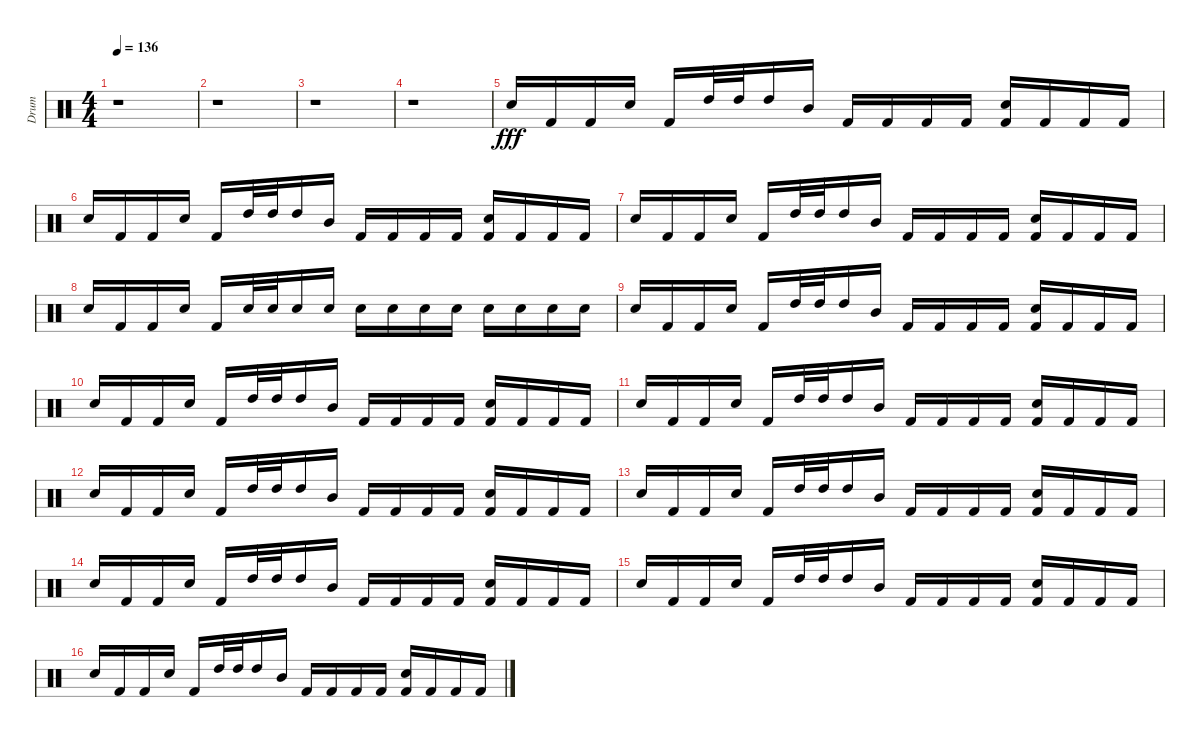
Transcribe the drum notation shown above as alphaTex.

\track ("Drum" "Drum") {instrument percussion}
\staff {score}
\articulation defaults
\ts (4 4)
\tempo 136
\clef neutral
\ks c
r.1{dy fff} |
r.1 |
r.1 |
r.1 |
"Electric Snare (hit)".16 "Kick (hit) 2".16 "Kick (hit) 2".16 "Electric Snare (hit)".16 "Kick (hit) 2".16 "High Tom (hit)".32 "High Tom (hit)".32 "High Tom (hit)".16 "Mid Tom (hit)".16 "Kick (hit) 2".16 "Kick (hit) 2".16 "Kick (hit) 2".16 "Kick (hit) 2".16 ("Electric Snare (hit)" "Kick (hit) 2").16 "Kick (hit) 2".16 "Kick (hit) 2".16 "Kick (hit) 2".16 |
"Electric Snare (hit)".16 "Kick (hit) 2".16 "Kick (hit) 2".16 "Electric Snare (hit)".16 "Kick (hit) 2".16 "High Tom (hit)".32 "High Tom (hit)".32 "High Tom (hit)".16 "Mid Tom (hit)".16 "Kick (hit) 2".16 "Kick (hit) 2".16 "Kick (hit) 2".16 "Kick (hit) 2".16 ("Electric Snare (hit)" "Kick (hit) 2").16 "Kick (hit) 2".16 "Kick (hit) 2".16 "Kick (hit) 2".16 |
"Electric Snare (hit)".16 "Kick (hit) 2".16 "Kick (hit) 2".16 "Electric Snare (hit)".16 "Kick (hit) 2".16 "High Tom (hit)".32 "High Tom (hit)".32 "High Tom (hit)".16 "Mid Tom (hit)".16 "Kick (hit) 2".16 "Kick (hit) 2".16 "Kick (hit) 2".16 "Kick (hit) 2".16 ("Electric Snare (hit)" "Kick (hit) 2").16 "Kick (hit) 2".16 "Kick (hit) 2".16 "Kick (hit) 2".16 |
"Electric Snare (hit)".16 "Kick (hit) 2".16 "Kick (hit) 2".16 "Electric Snare (hit)".16 "Kick (hit) 2".16 "Electric Snare (hit)".32 "Electric Snare (hit)".32 "Electric Snare (hit)".16 "Electric Snare (hit)".16 "Electric Snare (hit)".16 "Electric Snare (hit)".16 "Electric Snare (hit)".16 "Electric Snare (hit)".16 "Electric Snare (hit)".16 "Electric Snare (hit)".16 "Electric Snare (hit)".16 "Electric Snare (hit)".16 |
"Electric Snare (hit)".16 "Kick (hit) 2".16 "Kick (hit) 2".16 "Electric Snare (hit)".16 "Kick (hit) 2".16 "High Tom (hit)".32 "High Tom (hit)".32 "High Tom (hit)".16 "Mid Tom (hit)".16 "Kick (hit) 2".16 "Kick (hit) 2".16 "Kick (hit) 2".16 "Kick (hit) 2".16 ("Electric Snare (hit)" "Kick (hit) 2").16 "Kick (hit) 2".16 "Kick (hit) 2".16 "Kick (hit) 2".16 |
"Electric Snare (hit)".16 "Kick (hit) 2".16 "Kick (hit) 2".16 "Electric Snare (hit)".16 "Kick (hit) 2".16 "High Tom (hit)".32 "High Tom (hit)".32 "High Tom (hit)".16 "Mid Tom (hit)".16 "Kick (hit) 2".16 "Kick (hit) 2".16 "Kick (hit) 2".16 "Kick (hit) 2".16 ("Electric Snare (hit)" "Kick (hit) 2").16 "Kick (hit) 2".16 "Kick (hit) 2".16 "Kick (hit) 2".16 |
"Electric Snare (hit)".16 "Kick (hit) 2".16 "Kick (hit) 2".16 "Electric Snare (hit)".16 "Kick (hit) 2".16 "High Tom (hit)".32 "High Tom (hit)".32 "High Tom (hit)".16 "Mid Tom (hit)".16 "Kick (hit) 2".16 "Kick (hit) 2".16 "Kick (hit) 2".16 "Kick (hit) 2".16 ("Electric Snare (hit)" "Kick (hit) 2").16 "Kick (hit) 2".16 "Kick (hit) 2".16 "Kick (hit) 2".16 |
"Electric Snare (hit)".16 "Kick (hit) 2".16 "Kick (hit) 2".16 "Electric Snare (hit)".16 "Kick (hit) 2".16 "High Tom (hit)".32 "High Tom (hit)".32 "High Tom (hit)".16 "Mid Tom (hit)".16 "Kick (hit) 2".16 "Kick (hit) 2".16 "Kick (hit) 2".16 "Kick (hit) 2".16 ("Electric Snare (hit)" "Kick (hit) 2").16 "Kick (hit) 2".16 "Kick (hit) 2".16 "Kick (hit) 2".16 |
"Electric Snare (hit)".16 "Kick (hit) 2".16 "Kick (hit) 2".16 "Electric Snare (hit)".16 "Kick (hit) 2".16 "High Tom (hit)".32 "High Tom (hit)".32 "High Tom (hit)".16 "Mid Tom (hit)".16 "Kick (hit) 2".16 "Kick (hit) 2".16 "Kick (hit) 2".16 "Kick (hit) 2".16 ("Electric Snare (hit)" "Kick (hit) 2").16 "Kick (hit) 2".16 "Kick (hit) 2".16 "Kick (hit) 2".16 |
"Electric Snare (hit)".16 "Kick (hit) 2".16 "Kick (hit) 2".16 "Electric Snare (hit)".16 "Kick (hit) 2".16 "High Tom (hit)".32 "High Tom (hit)".32 "High Tom (hit)".16 "Mid Tom (hit)".16 "Kick (hit) 2".16 "Kick (hit) 2".16 "Kick (hit) 2".16 "Kick (hit) 2".16 ("Electric Snare (hit)" "Kick (hit) 2").16 "Kick (hit) 2".16 "Kick (hit) 2".16 "Kick (hit) 2".16 |
"Electric Snare (hit)".16 "Kick (hit) 2".16 "Kick (hit) 2".16 "Electric Snare (hit)".16 "Kick (hit) 2".16 "High Tom (hit)".32 "High Tom (hit)".32 "High Tom (hit)".16 "Mid Tom (hit)".16 "Kick (hit) 2".16 "Kick (hit) 2".16 "Kick (hit) 2".16 "Kick (hit) 2".16 ("Electric Snare (hit)" "Kick (hit) 2").16 "Kick (hit) 2".16 "Kick (hit) 2".16 "Kick (hit) 2".16 |
"Electric Snare (hit)".16 "Kick (hit) 2".16 "Kick (hit) 2".16 "Electric Snare (hit)".16 "Kick (hit) 2".16 "High Tom (hit)".32 "High Tom (hit)".32 "High Tom (hit)".16 "Mid Tom (hit)".16 "Kick (hit) 2".16 "Kick (hit) 2".16 "Kick (hit) 2".16 "Kick (hit) 2".16 ("Electric Snare (hit)" "Kick (hit) 2").16 "Kick (hit) 2".16 "Kick (hit) 2".16 "Kick (hit) 2".16
